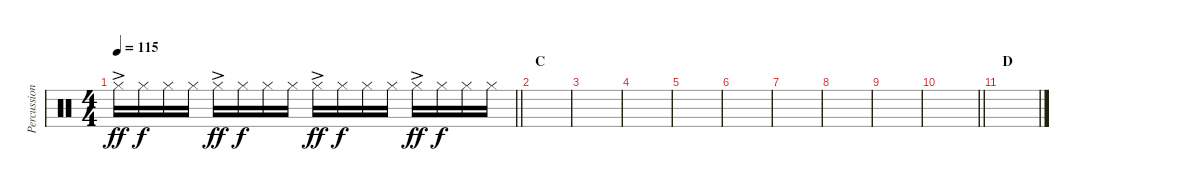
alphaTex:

\track ("Percussion" "Percussion") {instrument percussion}
\staff {score}
\articulation defaults
\ts (4 4)
\tempo 115
\clef neutral
\barLineRight lightlight
\ks c "Hi-Hat (closed)"{ac}.16{dy ff} "Hi-Hat (closed)".16{dy f} "Hi-Hat (closed)".16 "Hi-Hat (closed)".16 "Hi-Hat (closed)"{ac}.16{dy ff} "Hi-Hat (closed)".16{dy f} "Hi-Hat (closed)".16 "Hi-Hat (closed)".16 "Hi-Hat (closed)"{ac}.16{dy ff} "Hi-Hat (closed)".16{dy f} "Hi-Hat (closed)".16 "Hi-Hat (closed)".16 "Hi-Hat (closed)"{ac}.16{dy ff} "Hi-Hat (closed)".16{dy f} "Hi-Hat (closed)".16 "Hi-Hat (closed)".16
|
\section ("" "C")
|
|
|
|
|
|
|
|
\barLineRight lightlight
|
\section ("" "D")
